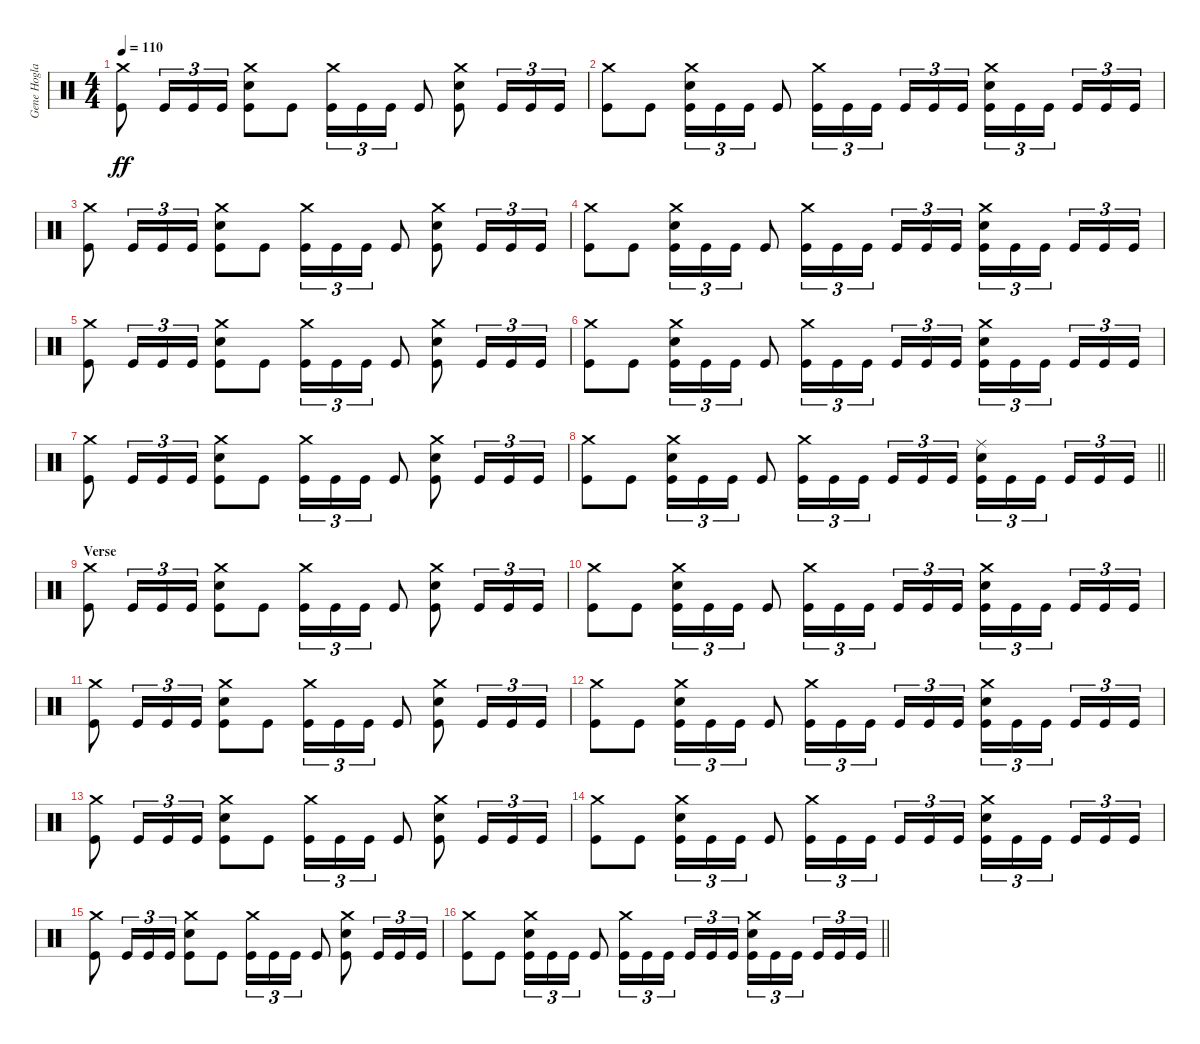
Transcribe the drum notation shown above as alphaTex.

\track ("Gene Hoglan" "Gene Hogla") {instrument percussion}
\staff {score}
\articulation defaults
\ts (4 4)
\section ("" "")
\tempo 110
\clef neutral
\ks c
("Crash medium (hit)" "Kick (hit)").8{dy ff} "Kick (hit)".16{tu (3 2)} "Kick (hit)".16{tu (3 2)} "Kick (hit)".16{tu (3 2)} ("Crash medium (hit)" "Electric Snare (hit)" "Kick (hit)").8 "Kick (hit)".8 ("Crash medium (hit)" "Kick (hit)").16{tu (3 2)} "Kick (hit)".16{tu (3 2)} "Kick (hit)".16{tu (3 2)} "Kick (hit)".8 ("Crash medium (hit)" "Electric Snare (hit)" "Kick (hit)").8 "Kick (hit)".16{tu (3 2)} "Kick (hit)".16{tu (3 2)} "Kick (hit)".16{tu (3 2)} |
("Crash medium (hit)" "Kick (hit)").8 "Kick (hit)".8 ("Crash medium (hit)" "Electric Snare (hit)" "Kick (hit)").16{tu (3 2)} "Kick (hit)".16{tu (3 2)} "Kick (hit)".16{tu (3 2)} "Kick (hit)".8 ("Crash medium (hit)" "Kick (hit)").16{tu (3 2)} "Kick (hit)".16{tu (3 2)} "Kick (hit)".16{tu (3 2) beam splitsecondary} "Kick (hit)".16{tu (3 2)} "Kick (hit)".16{tu (3 2)} "Kick (hit)".16{tu (3 2)} ("Crash medium (hit)" "Electric Snare (hit)" "Kick (hit)").16{tu (3 2)} "Kick (hit)".16{tu (3 2)} "Kick (hit)".16{tu (3 2) beam splitsecondary} "Kick (hit)".16{tu (3 2)} "Kick (hit)".16{tu (3 2)} "Kick (hit)".16{tu (3 2)} |
("Crash medium (hit)" "Kick (hit)").8 "Kick (hit)".16{tu (3 2)} "Kick (hit)".16{tu (3 2)} "Kick (hit)".16{tu (3 2)} ("Crash medium (hit)" "Electric Snare (hit)" "Kick (hit)").8 "Kick (hit)".8 ("Crash medium (hit)" "Kick (hit)").16{tu (3 2)} "Kick (hit)".16{tu (3 2)} "Kick (hit)".16{tu (3 2)} "Kick (hit)".8 ("Crash medium (hit)" "Electric Snare (hit)" "Kick (hit)").8 "Kick (hit)".16{tu (3 2)} "Kick (hit)".16{tu (3 2)} "Kick (hit)".16{tu (3 2)} |
("Crash medium (hit)" "Kick (hit)").8 "Kick (hit)".8 ("Crash medium (hit)" "Electric Snare (hit)" "Kick (hit)").16{tu (3 2)} "Kick (hit)".16{tu (3 2)} "Kick (hit)".16{tu (3 2)} "Kick (hit)".8 ("Crash medium (hit)" "Kick (hit)").16{tu (3 2)} "Kick (hit)".16{tu (3 2)} "Kick (hit)".16{tu (3 2) beam splitsecondary} "Kick (hit)".16{tu (3 2)} "Kick (hit)".16{tu (3 2)} "Kick (hit)".16{tu (3 2)} ("Crash medium (hit)" "Electric Snare (hit)" "Kick (hit)").16{tu (3 2)} "Kick (hit)".16{tu (3 2)} "Kick (hit)".16{tu (3 2) beam splitsecondary} "Kick (hit)".16{tu (3 2)} "Kick (hit)".16{tu (3 2)} "Kick (hit)".16{tu (3 2)} |
("Crash medium (hit)" "Kick (hit)").8 "Kick (hit)".16{tu (3 2)} "Kick (hit)".16{tu (3 2)} "Kick (hit)".16{tu (3 2)} ("Crash medium (hit)" "Electric Snare (hit)" "Kick (hit)").8 "Kick (hit)".8 ("Crash medium (hit)" "Kick (hit)").16{tu (3 2)} "Kick (hit)".16{tu (3 2)} "Kick (hit)".16{tu (3 2)} "Kick (hit)".8 ("Crash medium (hit)" "Electric Snare (hit)" "Kick (hit)").8 "Kick (hit)".16{tu (3 2)} "Kick (hit)".16{tu (3 2)} "Kick (hit)".16{tu (3 2)} |
("Crash medium (hit)" "Kick (hit)").8 "Kick (hit)".8 ("Crash medium (hit)" "Electric Snare (hit)" "Kick (hit)").16{tu (3 2)} "Kick (hit)".16{tu (3 2)} "Kick (hit)".16{tu (3 2)} "Kick (hit)".8 ("Crash medium (hit)" "Kick (hit)").16{tu (3 2)} "Kick (hit)".16{tu (3 2)} "Kick (hit)".16{tu (3 2) beam splitsecondary} "Kick (hit)".16{tu (3 2)} "Kick (hit)".16{tu (3 2)} "Kick (hit)".16{tu (3 2)} ("Crash medium (hit)" "Electric Snare (hit)" "Kick (hit)").16{tu (3 2)} "Kick (hit)".16{tu (3 2)} "Kick (hit)".16{tu (3 2) beam splitsecondary} "Kick (hit)".16{tu (3 2)} "Kick (hit)".16{tu (3 2)} "Kick (hit)".16{tu (3 2)} |
("Crash medium (hit)" "Kick (hit)").8 "Kick (hit)".16{tu (3 2)} "Kick (hit)".16{tu (3 2)} "Kick (hit)".16{tu (3 2)} ("Crash medium (hit)" "Electric Snare (hit)" "Kick (hit)").8 "Kick (hit)".8 ("Crash medium (hit)" "Kick (hit)").16{tu (3 2)} "Kick (hit)".16{tu (3 2)} "Kick (hit)".16{tu (3 2)} "Kick (hit)".8 ("Crash medium (hit)" "Electric Snare (hit)" "Kick (hit)").8 "Kick (hit)".16{tu (3 2)} "Kick (hit)".16{tu (3 2)} "Kick (hit)".16{tu (3 2)} |
\barLineRight lightlight
("Crash medium (hit)" "Kick (hit)").8 "Kick (hit)".8 ("Crash medium (hit)" "Electric Snare (hit)" "Kick (hit)").16{tu (3 2)} "Kick (hit)".16{tu (3 2)} "Kick (hit)".16{tu (3 2)} "Kick (hit)".8 ("Crash medium (hit)" "Kick (hit)").16{tu (3 2)} "Kick (hit)".16{tu (3 2)} "Kick (hit)".16{tu (3 2) beam splitsecondary} "Kick (hit)".16{tu (3 2)} "Kick (hit)".16{tu (3 2)} "Kick (hit)".16{tu (3 2)} ("Ride (middle)" "Electric Snare (hit)" "Kick (hit)").16{tu (3 2)} "Kick (hit)".16{tu (3 2)} "Kick (hit)".16{tu (3 2) beam splitsecondary} "Kick (hit)".16{tu (3 2)} "Kick (hit)".16{tu (3 2)} "Kick (hit)".16{tu (3 2)} |
\section ("" "Verse")
("Crash medium (hit)" "Kick (hit)").8 "Kick (hit)".16{tu (3 2)} "Kick (hit)".16{tu (3 2)} "Kick (hit)".16{tu (3 2)} ("Crash medium (hit)" "Electric Snare (hit)" "Kick (hit)").8 "Kick (hit)".8 ("Crash medium (hit)" "Kick (hit)").16{tu (3 2)} "Kick (hit)".16{tu (3 2)} "Kick (hit)".16{tu (3 2)} "Kick (hit)".8 ("Crash medium (hit)" "Electric Snare (hit)" "Kick (hit)").8 "Kick (hit)".16{tu (3 2)} "Kick (hit)".16{tu (3 2)} "Kick (hit)".16{tu (3 2)} |
("Crash medium (hit)" "Kick (hit)").8 "Kick (hit)".8 ("Crash medium (hit)" "Electric Snare (hit)" "Kick (hit)").16{tu (3 2)} "Kick (hit)".16{tu (3 2)} "Kick (hit)".16{tu (3 2)} "Kick (hit)".8 ("Crash medium (hit)" "Kick (hit)").16{tu (3 2)} "Kick (hit)".16{tu (3 2)} "Kick (hit)".16{tu (3 2) beam splitsecondary} "Kick (hit)".16{tu (3 2)} "Kick (hit)".16{tu (3 2)} "Kick (hit)".16{tu (3 2)} ("Crash medium (hit)" "Electric Snare (hit)" "Kick (hit)").16{tu (3 2)} "Kick (hit)".16{tu (3 2)} "Kick (hit)".16{tu (3 2) beam splitsecondary} "Kick (hit)".16{tu (3 2)} "Kick (hit)".16{tu (3 2)} "Kick (hit)".16{tu (3 2)} |
("Crash medium (hit)" "Kick (hit)").8 "Kick (hit)".16{tu (3 2)} "Kick (hit)".16{tu (3 2)} "Kick (hit)".16{tu (3 2)} ("Crash medium (hit)" "Electric Snare (hit)" "Kick (hit)").8 "Kick (hit)".8 ("Crash medium (hit)" "Kick (hit)").16{tu (3 2)} "Kick (hit)".16{tu (3 2)} "Kick (hit)".16{tu (3 2)} "Kick (hit)".8 ("Crash medium (hit)" "Electric Snare (hit)" "Kick (hit)").8 "Kick (hit)".16{tu (3 2)} "Kick (hit)".16{tu (3 2)} "Kick (hit)".16{tu (3 2)} |
("Crash medium (hit)" "Kick (hit)").8 "Kick (hit)".8 ("Crash medium (hit)" "Electric Snare (hit)" "Kick (hit)").16{tu (3 2)} "Kick (hit)".16{tu (3 2)} "Kick (hit)".16{tu (3 2)} "Kick (hit)".8 ("Crash medium (hit)" "Kick (hit)").16{tu (3 2)} "Kick (hit)".16{tu (3 2)} "Kick (hit)".16{tu (3 2) beam splitsecondary} "Kick (hit)".16{tu (3 2)} "Kick (hit)".16{tu (3 2)} "Kick (hit)".16{tu (3 2)} ("Crash medium (hit)" "Electric Snare (hit)" "Kick (hit)").16{tu (3 2)} "Kick (hit)".16{tu (3 2)} "Kick (hit)".16{tu (3 2) beam splitsecondary} "Kick (hit)".16{tu (3 2)} "Kick (hit)".16{tu (3 2)} "Kick (hit)".16{tu (3 2)} |
("Crash medium (hit)" "Kick (hit)").8 "Kick (hit)".16{tu (3 2)} "Kick (hit)".16{tu (3 2)} "Kick (hit)".16{tu (3 2)} ("Crash medium (hit)" "Electric Snare (hit)" "Kick (hit)").8 "Kick (hit)".8 ("Crash medium (hit)" "Kick (hit)").16{tu (3 2)} "Kick (hit)".16{tu (3 2)} "Kick (hit)".16{tu (3 2)} "Kick (hit)".8 ("Crash medium (hit)" "Electric Snare (hit)" "Kick (hit)").8 "Kick (hit)".16{tu (3 2)} "Kick (hit)".16{tu (3 2)} "Kick (hit)".16{tu (3 2)} |
("Crash medium (hit)" "Kick (hit)").8 "Kick (hit)".8 ("Crash medium (hit)" "Electric Snare (hit)" "Kick (hit)").16{tu (3 2)} "Kick (hit)".16{tu (3 2)} "Kick (hit)".16{tu (3 2)} "Kick (hit)".8 ("Crash medium (hit)" "Kick (hit)").16{tu (3 2)} "Kick (hit)".16{tu (3 2)} "Kick (hit)".16{tu (3 2) beam splitsecondary} "Kick (hit)".16{tu (3 2)} "Kick (hit)".16{tu (3 2)} "Kick (hit)".16{tu (3 2)} ("Crash medium (hit)" "Electric Snare (hit)" "Kick (hit)").16{tu (3 2)} "Kick (hit)".16{tu (3 2)} "Kick (hit)".16{tu (3 2) beam splitsecondary} "Kick (hit)".16{tu (3 2)} "Kick (hit)".16{tu (3 2)} "Kick (hit)".16{tu (3 2)} |
("Crash medium (hit)" "Kick (hit)").8 "Kick (hit)".16{tu (3 2)} "Kick (hit)".16{tu (3 2)} "Kick (hit)".16{tu (3 2)} ("Crash medium (hit)" "Electric Snare (hit)" "Kick (hit)").8 "Kick (hit)".8 ("Crash medium (hit)" "Kick (hit)").16{tu (3 2)} "Kick (hit)".16{tu (3 2)} "Kick (hit)".16{tu (3 2)} "Kick (hit)".8 ("Crash medium (hit)" "Electric Snare (hit)" "Kick (hit)").8 "Kick (hit)".16{tu (3 2)} "Kick (hit)".16{tu (3 2)} "Kick (hit)".16{tu (3 2)} |
\barLineRight lightlight
("Crash medium (hit)" "Kick (hit)").8 "Kick (hit)".8 ("Crash medium (hit)" "Electric Snare (hit)" "Kick (hit)").16{tu (3 2)} "Kick (hit)".16{tu (3 2)} "Kick (hit)".16{tu (3 2)} "Kick (hit)".8 ("Crash medium (hit)" "Kick (hit)").16{tu (3 2)} "Kick (hit)".16{tu (3 2)} "Kick (hit)".16{tu (3 2) beam splitsecondary} "Kick (hit)".16{tu (3 2)} "Kick (hit)".16{tu (3 2)} "Kick (hit)".16{tu (3 2)} ("Crash medium (hit)" "Electric Snare (hit)" "Kick (hit)").16{tu (3 2)} "Kick (hit)".16{tu (3 2)} "Kick (hit)".16{tu (3 2) beam splitsecondary} "Kick (hit)".16{tu (3 2)} "Kick (hit)".16{tu (3 2)} "Kick (hit)".16{tu (3 2)}
